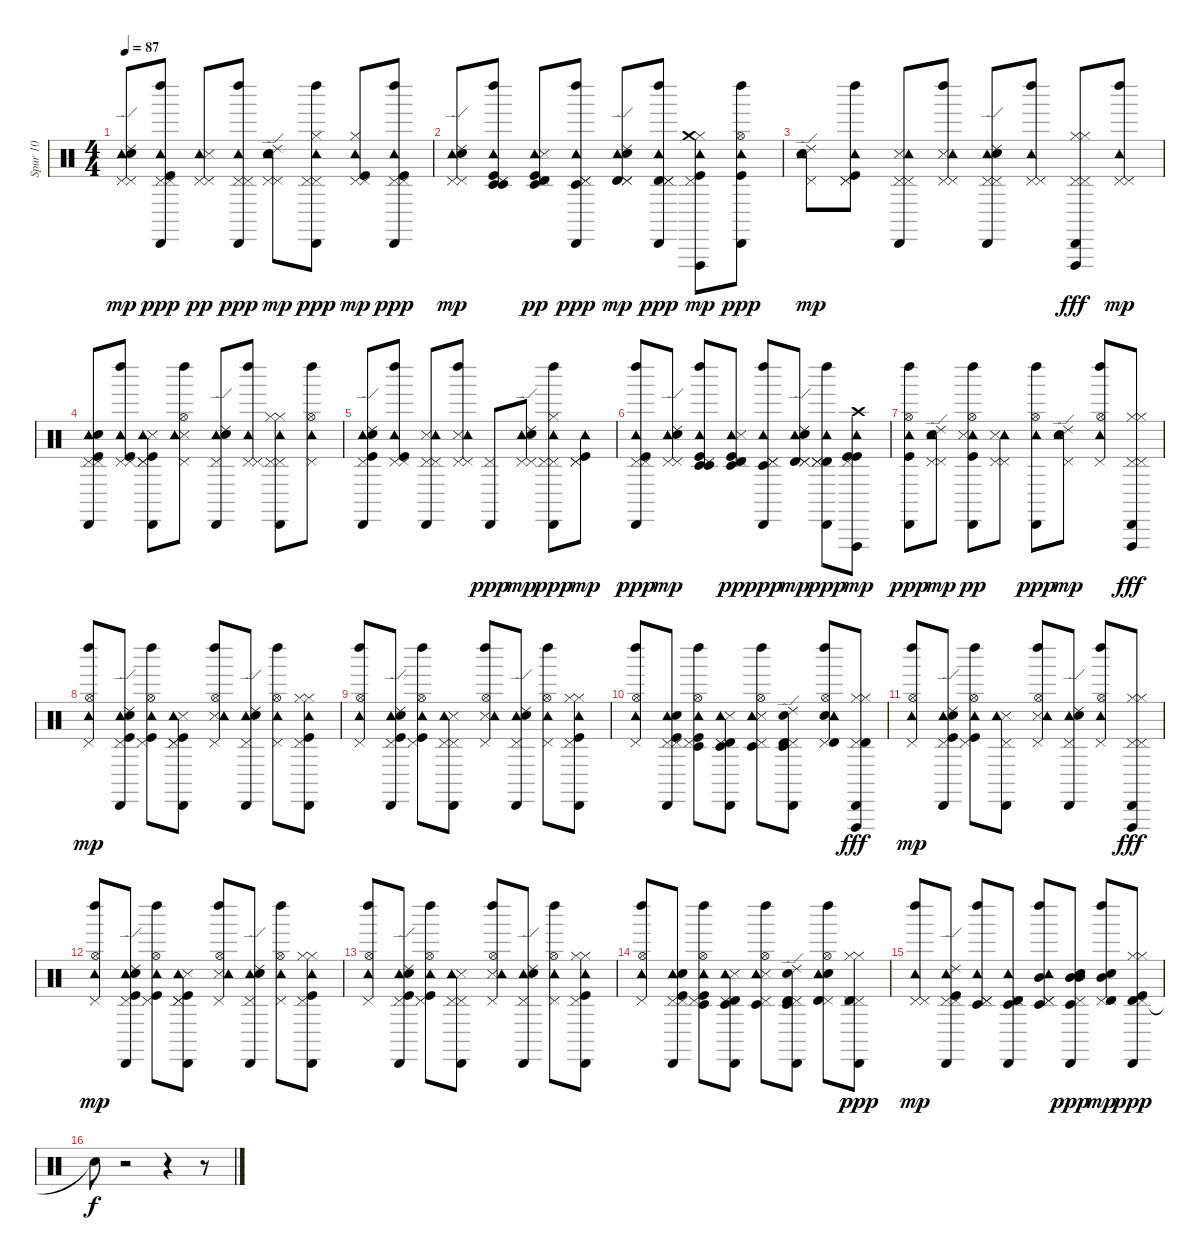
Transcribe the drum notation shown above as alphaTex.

\track ("Spur 10" "Spur 10") {instrument percussion}
\staff {score}
\articulation defaults
\ts (4 4)
\tempo 87
\clef neutral
\ks c
("Ride (edge) 2" "Pedal Hi-Hat (hit)" "Tambourine (hit)" "Electric Snare (hit)" "Pedal Hi-Hat (hit)").8{dy mp} ("Pedal Hi-Hat (hit)" "Kick (hit)" "Tambourine (hit)" "Left Maraca (hit)" "Cabasa (hit)" "Pedal Hi-Hat (hit)").8{dy ppp} ("Pedal Hi-Hat (hit)" "Tambourine (hit)" "Snare (side stick) 3" "Pedal Hi-Hat (hit)").8{dy pp} ("Left Maraca (hit)" "Pedal Hi-Hat (hit)" "Tambourine (hit)" "Cabasa (hit)" "Pedal Hi-Hat (hit)").8{dy ppp} ("Ride (edge) 2" "Pedal Hi-Hat (hit)" "Tambourine (hit)" "Electric Snare (hit)" "Pedal Hi-Hat (hit)").8{dy mp} ("Left Maraca (hit)" "Pedal Hi-Hat (hit)" "Tambourine (hit)" "Cabasa (hit)" "Pedal Hi-Hat (hit)" "Hi-Hat (closed)").8{dy ppp} ("Hi-Hat (closed)" "Pedal Hi-Hat (hit)" "Tambourine (hit)" "Kick (hit)" "Pedal Hi-Hat (hit)").8{dy mp} ("Left Maraca (hit)" "Pedal Hi-Hat (hit)" "Tambourine (hit)" "Kick (hit)" "Cabasa (hit)" "Pedal Hi-Hat (hit)").8{dy ppp} |
("Pedal Hi-Hat (hit)" "Tambourine (hit)" "Electric Snare (hit)" "Ride (edge) 2" "Pedal Hi-Hat (hit)").8{dy mp} ("Timbale low (hit)" "Kick (hit)" "Tambourine (hit)" "Left Maraca (hit)" "Pedal Hi-Hat (hit)" "Timbale low (hit)").8 ("Timbale high (hit)" "Tambourine (hit)" "Pedal Hi-Hat (hit)" "Kick (hit)" "Timbale low (hit)" "Snare (side stick) 3").8{dy pp} ("Pedal Hi-Hat (hit)" "Left Maraca (hit)" "Tambourine (hit)" "Timbale low (hit)" "Pedal Hi-Hat (hit)" "Cabasa (hit)").8{dy ppp} ("Timbale high (hit)" "Ride (edge) 2" "Tambourine (hit)" "Pedal Hi-Hat (hit)" "Electric Snare (hit)" "Pedal Hi-Hat (hit)").8{dy mp} ("Timbale high (hit)" "Pedal Hi-Hat (hit)" "Left Maraca (hit)" "Tambourine (hit)" "Pedal Hi-Hat (hit)" "Cabasa (hit)").8{dy ppp} ("Hi-Hat (closed)" "Vibraslap (hit)" "Pedal Hi-Hat (hit)" "Tambourine (hit)" "Kick (hit)" "Crash medium (hit)").8{dy mp} ("Left Maraca (hit)" "Hi-Hat (open)" "Tambourine (hit)" "Kick (hit)" "Cabasa (hit)").8{dy ppp} |
("Ride (edge) 2" "Pedal Hi-Hat (hit)" "Tambourine (hit)" "Electric Snare (hit)").8{dy mp} ("Pedal Hi-Hat (hit)" "Pedal Hi-Hat (hit)" "Kick (hit)" "Tambourine (hit)" "Left Maraca (hit)").8 ("Cabasa (hit)" "Pedal Hi-Hat (hit)" "Snare (side stick) 3" "Pedal Hi-Hat (hit)" "Tambourine (hit)").8 ("Snare (side stick) 3" "Pedal Hi-Hat (hit)" "Left Maraca (hit)" "Pedal Hi-Hat (hit)" "Tambourine (hit)").8 ("Cabasa (hit)" "Pedal Hi-Hat (hit)" "Ride (edge) 2" "Pedal Hi-Hat (hit)" "Tambourine (hit)" "Electric Snare (hit)").8 ("Pedal Hi-Hat (hit)" "Left Maraca (hit)" "Pedal Hi-Hat (hit)" "Tambourine (hit)").8 ("Cabasa (hit)" "Pedal Hi-Hat (hit)" "Hi-Hat (closed)" "Hi-Hat (closed)" "Vibraslap (hit)" "Pedal Hi-Hat (hit)").8{dy fff} ("Pedal Hi-Hat (hit)" "Left Maraca (hit)" "Pedal Hi-Hat (hit)" "Tambourine (hit)").8{dy mp} |
("Kick (hit)" "Cabasa (hit)" "Pedal Hi-Hat (hit)" "Pedal Hi-Hat (hit)" "Tambourine (hit)" "Electric Snare (hit)").8 ("Pedal Hi-Hat (hit)" "Kick (hit)" "Tambourine (hit)" "Left Maraca (hit)" "Pedal Hi-Hat (hit)").8 ("Pedal Hi-Hat (hit)" "Snare (side stick) 3" "Cabasa (hit)" "Tambourine (hit)" "Pedal Hi-Hat (hit)" "Kick (hit)").8 ("Snare (side stick) 3" "Pedal Hi-Hat (hit)" "Left Maraca (hit)" "Tambourine (hit)" "Hi-Hat (open)").8 ("Cabasa (hit)" "Ride (edge) 2" "Tambourine (hit)" "Pedal Hi-Hat (hit)" "Electric Snare (hit)").8 ("Pedal Hi-Hat (hit)" "Pedal Hi-Hat (hit)" "Left Maraca (hit)" "Tambourine (hit)").8 ("Pedal Hi-Hat (hit)" "Cabasa (hit)" "Hi-Hat (closed)" "Hi-Hat (closed)" "Pedal Hi-Hat (hit)" "Tambourine (hit)").8 ("Pedal Hi-Hat (hit)" "Left Maraca (hit)" "Hi-Hat (open)" "Tambourine (hit)").8 |
("Kick (hit)" "Cabasa (hit)" "Ride (edge) 2" "Pedal Hi-Hat (hit)" "Tambourine (hit)" "Electric Snare (hit)").8 ("Pedal Hi-Hat (hit)" "Pedal Hi-Hat (hit)" "Kick (hit)" "Tambourine (hit)" "Left Maraca (hit)").8 ("Cabasa (hit)" "Pedal Hi-Hat (hit)" "Snare (side stick) 3" "Pedal Hi-Hat (hit)" "Tambourine (hit)").8 ("Snare (side stick) 3" "Pedal Hi-Hat (hit)" "Left Maraca (hit)" "Pedal Hi-Hat (hit)" "Tambourine (hit)").8 ("Cabasa (hit)" "Pedal Hi-Hat (hit)").8{dy ppp} ("Ride (edge) 2" "Pedal Hi-Hat (hit)" "Tambourine (hit)" "Electric Snare (hit)" "Pedal Hi-Hat (hit)").8{dy mp} ("Left Maraca (hit)" "Pedal Hi-Hat (hit)" "Tambourine (hit)" "Cabasa (hit)" "Pedal Hi-Hat (hit)" "Hi-Hat (closed)").8{dy ppp} ("Pedal Hi-Hat (hit)" "Tambourine (hit)" "Kick (hit)" "Pedal Hi-Hat (hit)").8{dy mp} |
("Left Maraca (hit)" "Pedal Hi-Hat (hit)" "Tambourine (hit)" "Kick (hit)" "Cabasa (hit)" "Pedal Hi-Hat (hit)").8{dy ppp} ("Pedal Hi-Hat (hit)" "Tambourine (hit)" "Electric Snare (hit)" "Ride (edge) 2" "Pedal Hi-Hat (hit)").8{dy mp} ("Timbale low (hit)" "Kick (hit)" "Tambourine (hit)" "Left Maraca (hit)" "Pedal Hi-Hat (hit)" "Timbale low (hit)").8 ("Timbale high (hit)" "Tambourine (hit)" "Pedal Hi-Hat (hit)" "Kick (hit)" "Timbale low (hit)" "Snare (side stick) 3").8{dy pp} ("Pedal Hi-Hat (hit)" "Left Maraca (hit)" "Tambourine (hit)" "Timbale low (hit)" "Pedal Hi-Hat (hit)" "Cabasa (hit)").8{dy ppp} ("Timbale high (hit)" "Ride (edge) 2" "Tambourine (hit)" "Pedal Hi-Hat (hit)" "Electric Snare (hit)" "Pedal Hi-Hat (hit)").8{dy mp} ("Timbale high (hit)" "Pedal Hi-Hat (hit)" "Left Maraca (hit)" "Tambourine (hit)" "Pedal Hi-Hat (hit)" "Cabasa (hit)").8{dy ppp} ("Crash high (hit)" "Kick (hit)" "Vibraslap (hit)" "Pedal Hi-Hat (hit)" "Tambourine (hit)" "Kick (hit)").8{dy mp} |
("Left Maraca (hit)" "Hi-Hat (open)" "Tambourine (hit)" "Kick (hit)" "Cabasa (hit)").8{dy ppp} ("Ride (edge) 2" "Pedal Hi-Hat (hit)" "Tambourine (hit)" "Electric Snare (hit)" "Pedal Hi-Hat (hit)").8{dy mp} ("Hi-Hat (open)" "Kick (hit)" "Tambourine (hit)" "Left Maraca (hit)" "Cabasa (hit)" "Snare (side stick) 3").8{dy pp} ("Pedal Hi-Hat (hit)" "Tambourine (hit)" "Snare (side stick) 3" "Pedal Hi-Hat (hit)").8 ("Hi-Hat (open)" "Left Maraca (hit)" "Tambourine (hit)" "Cabasa (hit)").8{dy ppp} ("Ride (edge) 2" "Pedal Hi-Hat (hit)" "Tambourine (hit)" "Electric Snare (hit)").8{dy mp} ("Pedal Hi-Hat (hit)" "Hi-Hat (open)" "Left Maraca (hit)" "Tambourine (hit)").8 ("Cabasa (hit)" "Pedal Hi-Hat (hit)" "Hi-Hat (closed)" "Hi-Hat (closed)" "Vibraslap (hit)" "Pedal Hi-Hat (hit)").8{dy fff} |
("Pedal Hi-Hat (hit)" "Hi-Hat (open)" "Left Maraca (hit)" "Tambourine (hit)").8{dy mp} ("Kick (hit)" "Cabasa (hit)" "Pedal Hi-Hat (hit)" "Tambourine (hit)" "Electric Snare (hit)" "Ride (edge) 2").8 ("Pedal Hi-Hat (hit)" "Hi-Hat (open)" "Kick (hit)" "Tambourine (hit)" "Left Maraca (hit)").8 ("Pedal Hi-Hat (hit)" "Snare (side stick) 3" "Cabasa (hit)" "Tambourine (hit)" "Pedal Hi-Hat (hit)" "Kick (hit)").8 ("Snare (side stick) 3" "Pedal Hi-Hat (hit)" "Left Maraca (hit)" "Tambourine (hit)" "Hi-Hat (open)").8 ("Cabasa (hit)" "Ride (edge) 2" "Tambourine (hit)" "Pedal Hi-Hat (hit)" "Electric Snare (hit)").8 ("Pedal Hi-Hat (hit)" "Hi-Hat (open)" "Left Maraca (hit)" "Tambourine (hit)").8 ("Cabasa (hit)" "Hi-Hat (closed)" "Hi-Hat (closed)" "Pedal Hi-Hat (hit)" "Tambourine (hit)" "Kick (hit)").8 |
("Pedal Hi-Hat (hit)" "Left Maraca (hit)" "Hi-Hat (open)" "Tambourine (hit)").8 ("Kick (hit)" "Cabasa (hit)" "Ride (edge) 2" "Pedal Hi-Hat (hit)" "Tambourine (hit)" "Electric Snare (hit)").8 ("Pedal Hi-Hat (hit)" "Hi-Hat (open)" "Kick (hit)" "Tambourine (hit)" "Left Maraca (hit)").8 ("Cabasa (hit)" "Pedal Hi-Hat (hit)" "Snare (side stick) 3" "Pedal Hi-Hat (hit)" "Tambourine (hit)").8 ("Snare (side stick) 3" "Pedal Hi-Hat (hit)" "Hi-Hat (open)" "Left Maraca (hit)" "Tambourine (hit)").8 ("Cabasa (hit)" "Ride (edge) 2" "Pedal Hi-Hat (hit)" "Tambourine (hit)" "Electric Snare (hit)").8 ("Pedal Hi-Hat (hit)" "Hi-Hat (open)" "Left Maraca (hit)" "Tambourine (hit)").8 ("Cabasa (hit)" "Hi-Hat (closed)" "Hi-Hat (closed)" "Pedal Hi-Hat (hit)" "Tambourine (hit)" "Kick (hit)").8 |
("Pedal Hi-Hat (hit)" "Hi-Hat (open)" "Left Maraca (hit)" "Tambourine (hit)").8 ("Kick (hit)" "Cabasa (hit)" "Pedal Hi-Hat (hit)" "Pedal Hi-Hat (hit)" "Tambourine (hit)" "Electric Snare (hit)").8 ("Pedal Hi-Hat (hit)" "Hi-Hat (open)" "Timbale low (hit)" "Kick (hit)" "Tambourine (hit)" "Left Maraca (hit)").8 ("Timbale low (hit)" "Snare (side stick) 3" "Cabasa (hit)" "Timbale high (hit)" "Tambourine (hit)" "Pedal Hi-Hat (hit)").8 ("Timbale low (hit)" "Snare (side stick) 3" "Pedal Hi-Hat (hit)" "Hi-Hat (open)" "Left Maraca (hit)" "Tambourine (hit)").8 ("Electric Snare (hit)" "Timbale low (hit)" "Pedal Hi-Hat (hit)" "Cabasa (hit)" "Timbale high (hit)" "Ride (edge) 2").8 ("Pedal Hi-Hat (hit)" "Hi-Hat (open)" "Electric Snare (hit)" "Timbale high (hit)" "Left Maraca (hit)" "Tambourine (hit)").8 ("Pedal Hi-Hat (hit)" "Cabasa (hit)" "Timbale high (hit)" "Hi-Hat (closed)" "Hi-Hat (closed)" "Vibraslap (hit)").8{dy fff} |
("Pedal Hi-Hat (hit)" "Left Maraca (hit)" "Hi-Hat (open)" "Tambourine (hit)").8{dy mp} ("Kick (hit)" "Cabasa (hit)" "Ride (edge) 2" "Pedal Hi-Hat (hit)" "Tambourine (hit)" "Electric Snare (hit)").8 ("Pedal Hi-Hat (hit)" "Hi-Hat (open)" "Kick (hit)" "Tambourine (hit)" "Left Maraca (hit)").8 ("Cabasa (hit)" "Snare (side stick) 3" "Pedal Hi-Hat (hit)" "Tambourine (hit)").8 ("Snare (side stick) 3" "Pedal Hi-Hat (hit)" "Hi-Hat (open)" "Left Maraca (hit)" "Tambourine (hit)").8 ("Cabasa (hit)" "Ride (edge) 2" "Pedal Hi-Hat (hit)" "Tambourine (hit)" "Electric Snare (hit)").8 ("Pedal Hi-Hat (hit)" "Hi-Hat (open)" "Left Maraca (hit)" "Tambourine (hit)").8 ("Cabasa (hit)" "Pedal Hi-Hat (hit)" "Hi-Hat (closed)" "Hi-Hat (closed)" "Vibraslap (hit)" "Pedal Hi-Hat (hit)").8{dy fff} |
("Pedal Hi-Hat (hit)" "Hi-Hat (open)" "Left Maraca (hit)" "Tambourine (hit)").8{dy mp} ("Kick (hit)" "Cabasa (hit)" "Pedal Hi-Hat (hit)" "Tambourine (hit)" "Electric Snare (hit)" "Ride (edge) 2").8 ("Pedal Hi-Hat (hit)" "Hi-Hat (open)" "Kick (hit)" "Tambourine (hit)" "Left Maraca (hit)").8 ("Pedal Hi-Hat (hit)" "Snare (side stick) 3" "Cabasa (hit)" "Tambourine (hit)" "Pedal Hi-Hat (hit)" "Kick (hit)").8 ("Snare (side stick) 3" "Pedal Hi-Hat (hit)" "Left Maraca (hit)" "Tambourine (hit)" "Hi-Hat (open)").8 ("Cabasa (hit)" "Ride (edge) 2" "Tambourine (hit)" "Pedal Hi-Hat (hit)" "Electric Snare (hit)").8 ("Pedal Hi-Hat (hit)" "Hi-Hat (open)" "Left Maraca (hit)" "Tambourine (hit)").8 ("Cabasa (hit)" "Hi-Hat (closed)" "Hi-Hat (closed)" "Pedal Hi-Hat (hit)" "Tambourine (hit)" "Kick (hit)").8 |
("Pedal Hi-Hat (hit)" "Left Maraca (hit)" "Hi-Hat (open)" "Tambourine (hit)").8 ("Kick (hit)" "Cabasa (hit)" "Ride (edge) 2" "Pedal Hi-Hat (hit)" "Tambourine (hit)" "Electric Snare (hit)").8 ("Pedal Hi-Hat (hit)" "Hi-Hat (open)" "Kick (hit)" "Tambourine (hit)" "Left Maraca (hit)").8 ("Cabasa (hit)" "Pedal Hi-Hat (hit)" "Snare (side stick) 3" "Pedal Hi-Hat (hit)" "Tambourine (hit)").8 ("Snare (side stick) 3" "Pedal Hi-Hat (hit)" "Hi-Hat (open)" "Left Maraca (hit)" "Tambourine (hit)").8 ("Cabasa (hit)" "Ride (edge) 2" "Pedal Hi-Hat (hit)" "Tambourine (hit)" "Electric Snare (hit)").8 ("Pedal Hi-Hat (hit)" "Hi-Hat (open)" "Left Maraca (hit)" "Tambourine (hit)").8 ("Cabasa (hit)" "Hi-Hat (closed)" "Hi-Hat (closed)" "Pedal Hi-Hat (hit)" "Tambourine (hit)" "Kick (hit)").8 |
("Pedal Hi-Hat (hit)" "Hi-Hat (open)" "Left Maraca (hit)" "Tambourine (hit)").8 ("Kick (hit)" "Cabasa (hit)" "Pedal Hi-Hat (hit)" "Pedal Hi-Hat (hit)" "Tambourine (hit)" "Electric Snare (hit)").8 ("Pedal Hi-Hat (hit)" "Hi-Hat (open)" "Timbale low (hit)" "Kick (hit)" "Tambourine (hit)" "Left Maraca (hit)").8 ("Timbale low (hit)" "Snare (side stick) 3" "Cabasa (hit)" "Timbale high (hit)" "Tambourine (hit)" "Pedal Hi-Hat (hit)").8 ("Timbale low (hit)" "Snare (side stick) 3" "Pedal Hi-Hat (hit)" "Hi-Hat (open)" "Left Maraca (hit)" "Tambourine (hit)").8 ("Electric Snare (hit)" "Timbale low (hit)" "Pedal Hi-Hat (hit)" "Cabasa (hit)" "Timbale high (hit)" "Ride (edge) 2").8 ("Pedal Hi-Hat (hit)" "Hi-Hat (open)" "Electric Snare (hit)" "Timbale high (hit)" "Left Maraca (hit)" "Tambourine (hit)").8 ("Pedal Hi-Hat (hit)" "Cabasa (hit)" "Timbale high (hit)" "Hi-Hat (closed)" "Hi-Hat (closed)" "Pedal Hi-Hat (hit)").8{dy ppp} |
("Pedal Hi-Hat (hit)" "Left Maraca (hit)" "Pedal Hi-Hat (hit)" "Tambourine (hit)").8{dy mp} ("Kick (hit)" "Cabasa (hit)" "Pedal Hi-Hat (hit)" "Pedal Hi-Hat (hit)" "Tambourine (hit)" "Ride (edge) 2").8 ("Pedal Hi-Hat (hit)" "Timbale low (hit)" "Tambourine (hit)" "Left Maraca (hit)" "Pedal Hi-Hat (hit)").8 ("Timbale low (hit)" "Pedal Hi-Hat (hit)" "Cabasa (hit)" "Timbale high (hit)" "Tambourine (hit)" "Pedal Hi-Hat (hit)").8 ("Timbale low (hit)" "Pedal Hi-Hat (hit)" "Mid Tom (hit)" "Pedal Hi-Hat (hit)" "Left Maraca (hit)" "Tambourine (hit)").8 ("Mid Tom (hit)" "Electric Snare (hit)" "Timbale low (hit)" "Pedal Hi-Hat (hit)" "Cabasa (hit)" "Mid Tom (hit)").8{dy ppp} ("Pedal Hi-Hat (hit)" "Mid Tom (hit)" "Electric Snare (hit)" "Timbale high (hit)" "Pedal Hi-Hat (hit)" "Left Maraca (hit)").8{dy mp} ("Timbale high (hit)" "Hi-Hat (closed)" "Pedal Hi-Hat (hit)" "Cabasa (hit)" "Hi-Hat (closed)" "Kick (hit)").8{dy ppp} |
"Snare (hit)"{t}.8{dy f} r.2 r.4 r.8
